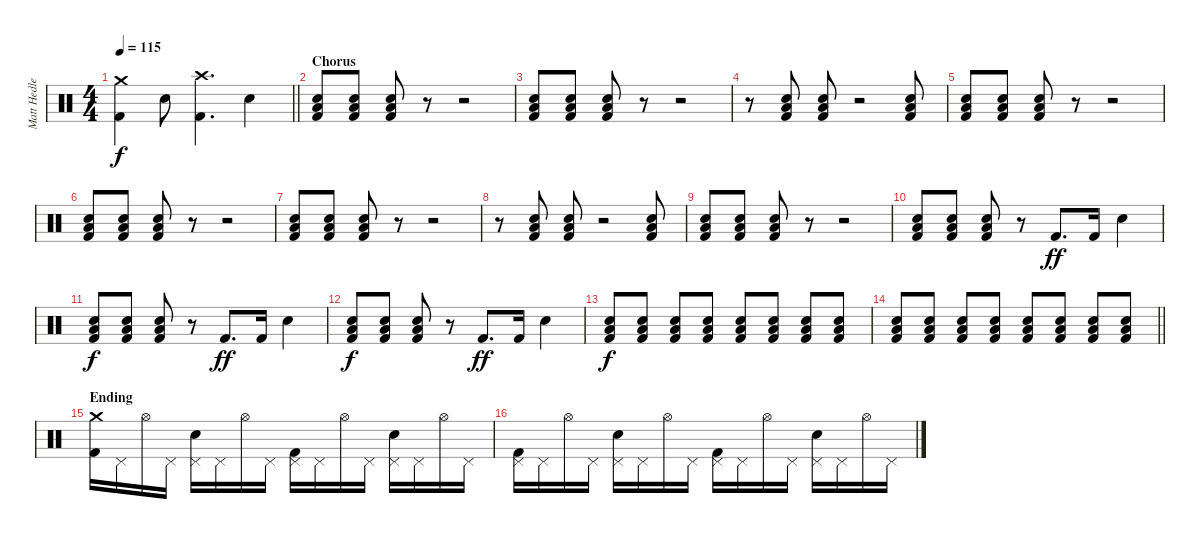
\track ("Matt Hedlers" "Matt Hedle") {instrument percussion}
\staff {score}
\articulation defaults
\ts (4 4)
\tempo 115
\clef neutral
\barLineRight lightlight
\ks c
("Crash medium (hit)" "Kick (hit) 2").4{dy f} "Snare (hit) 2".8 ("Crash high (hit)" "Kick (hit) 2").4{d} "Snare (hit) 2".4 |
\section ("" "Chorus")
("Low Tom (hit)" "Snare (hit) 2" "Kick (hit) 2").8 ("Low Tom (hit)" "Snare (hit) 2" "Kick (hit) 2").8 ("Low Tom (hit)" "Snare (hit) 2" "Kick (hit) 2").8 r.8 r.2 |
("Low Tom (hit)" "Snare (hit) 2" "Kick (hit) 2").8 ("Low Tom (hit)" "Snare (hit) 2" "Kick (hit) 2").8 ("Low Tom (hit)" "Snare (hit) 2" "Kick (hit) 2").8 r.8 r.2 |
r.8 ("Low Tom (hit)" "Snare (hit) 2" "Kick (hit) 2").8 ("Low Tom (hit)" "Snare (hit) 2" "Kick (hit) 2").8 r.2 ("Low Tom (hit)" "Snare (hit) 2" "Kick (hit) 2").8 |
("Low Tom (hit)" "Snare (hit) 2" "Kick (hit) 2").8 ("Low Tom (hit)" "Snare (hit) 2" "Kick (hit) 2").8 ("Low Tom (hit)" "Snare (hit) 2" "Kick (hit) 2").8 r.8 r.2 |
("Low Tom (hit)" "Snare (hit) 2" "Kick (hit) 2").8 ("Low Tom (hit)" "Snare (hit) 2" "Kick (hit) 2").8 ("Low Tom (hit)" "Snare (hit) 2" "Kick (hit) 2").8 r.8 r.2 |
("Low Tom (hit)" "Snare (hit) 2" "Kick (hit) 2").8 ("Low Tom (hit)" "Snare (hit) 2" "Kick (hit) 2").8 ("Low Tom (hit)" "Snare (hit) 2" "Kick (hit) 2").8 r.8 r.2 |
r.8 ("Low Tom (hit)" "Snare (hit) 2" "Kick (hit) 2").8 ("Low Tom (hit)" "Snare (hit) 2" "Kick (hit) 2").8 r.2 ("Low Tom (hit)" "Snare (hit) 2" "Kick (hit) 2").8 |
("Low Tom (hit)" "Snare (hit) 2" "Kick (hit) 2").8 ("Low Tom (hit)" "Snare (hit) 2" "Kick (hit) 2").8 ("Low Tom (hit)" "Snare (hit) 2" "Kick (hit) 2").8 r.8 r.2 |
("Low Tom (hit)" "Snare (hit) 2" "Kick (hit) 2").8 ("Low Tom (hit)" "Snare (hit) 2" "Kick (hit) 2").8 ("Low Tom (hit)" "Snare (hit) 2" "Kick (hit) 2").8 r.8 "Kick (hit) 2".8{d dy ff} "Kick (hit) 2".16 "Snare (hit) 2".4 |
("Low Tom (hit)" "Snare (hit) 2" "Kick (hit) 2").8{dy f} ("Low Tom (hit)" "Snare (hit) 2" "Kick (hit) 2").8 ("Low Tom (hit)" "Snare (hit) 2" "Kick (hit) 2").8 r.8 "Kick (hit) 2".8{d dy ff} "Kick (hit) 2".16 "Snare (hit) 2".4 |
("Low Tom (hit)" "Snare (hit) 2" "Kick (hit) 2").8{dy f} ("Low Tom (hit)" "Snare (hit) 2" "Kick (hit) 2").8 ("Low Tom (hit)" "Snare (hit) 2" "Kick (hit) 2").8 r.8 "Kick (hit) 2".8{d dy ff} "Kick (hit) 2".16 "Snare (hit) 2".4 |
("Low Tom (hit)" "Snare (hit) 2" "Kick (hit) 2").8{dy f} ("Low Tom (hit)" "Snare (hit) 2" "Kick (hit) 2").8 ("Low Tom (hit)" "Snare (hit) 2" "Kick (hit) 2").8 ("Low Tom (hit)" "Snare (hit) 2" "Kick (hit) 2").8 ("Low Tom (hit)" "Snare (hit) 2" "Kick (hit) 2").8 ("Low Tom (hit)" "Snare (hit) 2" "Kick (hit) 2").8 ("Low Tom (hit)" "Snare (hit) 2" "Kick (hit) 2").8 ("Low Tom (hit)" "Snare (hit) 2" "Kick (hit) 2").8 |
\barLineRight lightlight
("Low Tom (hit)" "Snare (hit) 2" "Kick (hit) 2").8 ("Low Tom (hit)" "Snare (hit) 2" "Kick (hit) 2").8 ("Low Tom (hit)" "Snare (hit) 2" "Kick (hit) 2").8 ("Low Tom (hit)" "Snare (hit) 2" "Kick (hit) 2").8 ("Low Tom (hit)" "Snare (hit) 2" "Kick (hit) 2").8 ("Low Tom (hit)" "Snare (hit) 2" "Kick (hit) 2").8 ("Low Tom (hit)" "Snare (hit) 2" "Kick (hit) 2").8 ("Low Tom (hit)" "Snare (hit) 2" "Kick (hit) 2").8 |
\section ("" "Ending")
("Crash medium (hit)" "Kick (hit) 2").16 "Pedal Hi-Hat (hit)".16 "Hi-Hat (open)".16 "Pedal Hi-Hat (hit)".16 ("Pedal Hi-Hat (hit)" "Snare (hit) 2").16 "Pedal Hi-Hat (hit)".16 "Hi-Hat (open)".16 "Pedal Hi-Hat (hit)".16 ("Pedal Hi-Hat (hit)" "Kick (hit) 2").16 "Pedal Hi-Hat (hit)".16 "Hi-Hat (open)".16 "Pedal Hi-Hat (hit)".16 ("Pedal Hi-Hat (hit)" "Snare (hit) 2").16 "Pedal Hi-Hat (hit)".16 "Hi-Hat (open)".16 "Pedal Hi-Hat (hit)".16 |
("Pedal Hi-Hat (hit)" "Kick (hit) 2").16 "Pedal Hi-Hat (hit)".16 "Hi-Hat (open)".16 "Pedal Hi-Hat (hit)".16 ("Pedal Hi-Hat (hit)" "Snare (hit) 2").16 "Pedal Hi-Hat (hit)".16 "Hi-Hat (open)".16 "Pedal Hi-Hat (hit)".16 ("Pedal Hi-Hat (hit)" "Kick (hit) 2").16 "Pedal Hi-Hat (hit)".16 "Hi-Hat (open)".16 "Pedal Hi-Hat (hit)".16 ("Pedal Hi-Hat (hit)" "Snare (hit) 2").16 "Pedal Hi-Hat (hit)".16 "Hi-Hat (open)".16 "Pedal Hi-Hat (hit)".16
